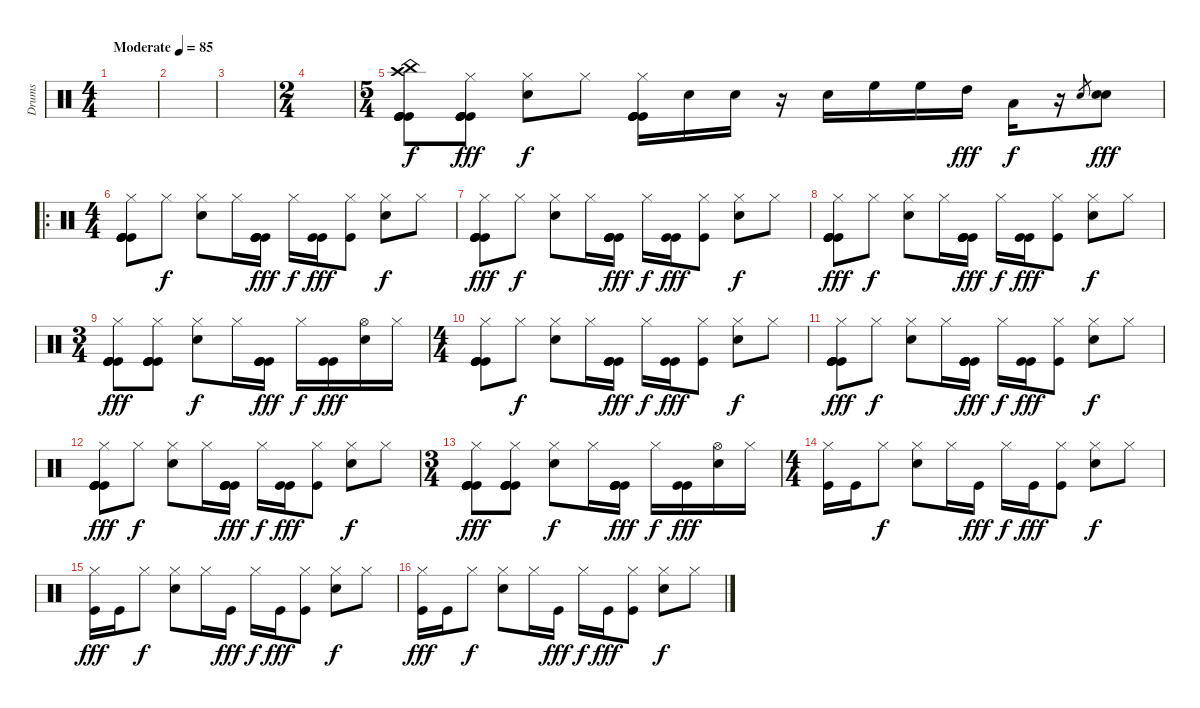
\track ("Drums" "Drums") {instrument percussion}
\staff {score}
\articulation defaults
\ts (4 4)
\tempo (85 "Moderate")
\clef neutral
\ks c
|
|
|
\ts (2 4)
|
\ts (5 4)
("Kick (hit)" "China (hit)" "Kick (hit)" "Kick (hit)" "Kick (hit)" "Crash high (hit)").8 ("Hi-Hat (closed)" "Kick (hit)" "Kick (hit)" "Kick (hit)" "Kick (hit)").8{dy fff} ("Snare (hit) 2" "Hi-Hat (closed)").8{dy f} "Hi-Hat (closed)".8 ("Hi-Hat (closed)" "Kick (hit)" "Kick (hit)" "Kick (hit)" "Kick (hit)").16 "Snare (hit) 2".16 "Snare (hit) 2".16 r.16 "Snare (hit) 2".16 "High Floor Tom (hit)".16 "High Floor Tom (hit)".16 "High Tom (hit)".16{dy fff} "Low Tom (hit)".16{dy f} r.16 "Snare (hit) 2".8{gr} ("Snare (hit) 2" "Snare (hit) 2").8{dy fff} |
\ro
\ts (4 4)
("Hi-Hat (closed)" "Kick (hit)" "Kick (hit)" "Kick (hit)" "Kick (hit)").8 "Hi-Hat (closed)".8{dy f} ("Hi-Hat (closed)" "Snare (hit) 2").8 "Hi-Hat (closed)".16 ("Kick (hit)" "Kick (hit)" "Kick (hit)" "Kick (hit)").16{dy fff} "Hi-Hat (closed)".16{dy f} ("Kick (hit)" "Kick (hit)").16{dy fff} ("Kick (hit)" "Hi-Hat (closed)").8 ("Snare (hit) 2" "Hi-Hat (closed)").8{dy f} "Hi-Hat (closed)".8 |
("Hi-Hat (closed)" "Kick (hit)" "Kick (hit)" "Kick (hit)" "Kick (hit)").8{dy fff} "Hi-Hat (closed)".8{dy f} ("Hi-Hat (closed)" "Snare (hit) 2").8 "Hi-Hat (closed)".16 ("Kick (hit)" "Kick (hit)" "Kick (hit)" "Kick (hit)").16{dy fff} "Hi-Hat (closed)".16{dy f} ("Kick (hit)" "Kick (hit)").16{dy fff} ("Kick (hit)" "Hi-Hat (closed)").8 ("Snare (hit) 2" "Hi-Hat (closed)").8{dy f} "Hi-Hat (closed)".8 |
("Hi-Hat (closed)" "Kick (hit)" "Kick (hit)" "Kick (hit)" "Kick (hit)").8{dy fff} "Hi-Hat (closed)".8{dy f} ("Hi-Hat (closed)" "Snare (hit) 2").8 "Hi-Hat (closed)".16 ("Kick (hit)" "Kick (hit)" "Kick (hit)" "Kick (hit)").16{dy fff} "Hi-Hat (closed)".16{dy f} ("Kick (hit)" "Kick (hit)").16{dy fff} ("Kick (hit)" "Hi-Hat (closed)").8 ("Snare (hit) 2" "Hi-Hat (closed)").8{dy f} "Hi-Hat (closed)".8 |
\ts (3 4)
("Hi-Hat (closed)" "Kick (hit)" "Kick (hit)" "Kick (hit)" "Kick (hit)").8{dy fff} ("Hi-Hat (closed)" "Kick (hit)" "Kick (hit)" "Kick (hit)" "Kick (hit)").8 ("Hi-Hat (closed)" "Snare (hit) 2").8{dy f} "Hi-Hat (closed)".16 ("Kick (hit)" "Kick (hit)" "Kick (hit)" "Kick (hit)").16{dy fff} "Hi-Hat (closed)".16{dy f} ("Kick (hit)" "Kick (hit)").16{dy fff} ("Snare (hit) 2" "Hi-Hat (open)").16 "Hi-Hat (closed)".16 |
\ts (4 4)
("Hi-Hat (closed)" "Kick (hit)" "Kick (hit)" "Kick (hit)" "Kick (hit)").8 "Hi-Hat (closed)".8{dy f} ("Hi-Hat (closed)" "Snare (hit) 2").8 "Hi-Hat (closed)".16 ("Kick (hit)" "Kick (hit)" "Kick (hit)" "Kick (hit)").16{dy fff} "Hi-Hat (closed)".16{dy f} ("Kick (hit)" "Kick (hit)").16{dy fff} ("Kick (hit)" "Hi-Hat (closed)").8 ("Snare (hit) 2" "Hi-Hat (closed)").8{dy f} "Hi-Hat (closed)".8 |
("Hi-Hat (closed)" "Kick (hit)" "Kick (hit)" "Kick (hit)" "Kick (hit)").8{dy fff} "Hi-Hat (closed)".8{dy f} ("Hi-Hat (closed)" "Snare (hit) 2").8 "Hi-Hat (closed)".16 ("Kick (hit)" "Kick (hit)" "Kick (hit)" "Kick (hit)").16{dy fff} "Hi-Hat (closed)".16{dy f} ("Kick (hit)" "Kick (hit)").16{dy fff} ("Kick (hit)" "Hi-Hat (closed)").8 ("Snare (hit) 2" "Hi-Hat (closed)").8{dy f} "Hi-Hat (closed)".8 |
("Hi-Hat (closed)" "Kick (hit)" "Kick (hit)" "Kick (hit)" "Kick (hit)").8{dy fff} "Hi-Hat (closed)".8{dy f} ("Hi-Hat (closed)" "Snare (hit) 2").8 "Hi-Hat (closed)".16 ("Kick (hit)" "Kick (hit)" "Kick (hit)" "Kick (hit)").16{dy fff} "Hi-Hat (closed)".16{dy f} ("Kick (hit)" "Kick (hit)").16{dy fff} ("Kick (hit)" "Hi-Hat (closed)").8 ("Snare (hit) 2" "Hi-Hat (closed)").8{dy f} "Hi-Hat (closed)".8 |
\ts (3 4)
("Hi-Hat (closed)" "Kick (hit)" "Kick (hit)" "Kick (hit)" "Kick (hit)").8{dy fff} ("Hi-Hat (closed)" "Kick (hit)" "Kick (hit)" "Kick (hit)" "Kick (hit)").8 ("Hi-Hat (closed)" "Snare (hit) 2").8{dy f} "Hi-Hat (closed)".16 ("Kick (hit)" "Kick (hit)" "Kick (hit)" "Kick (hit)").16{dy fff} "Hi-Hat (closed)".16{dy f} ("Kick (hit)" "Kick (hit)").16{dy fff} ("Snare (hit) 2" "Hi-Hat (open)").16 "Hi-Hat (closed)".16 |
\ts (4 4)
("Kick (hit)" "Hi-Hat (closed)").16 "Kick (hit)".16 "Hi-Hat (closed)".8{dy f} ("Hi-Hat (closed)" "Snare (hit) 2").8 "Hi-Hat (closed)".16 "Kick (hit)".16{dy fff} "Hi-Hat (closed)".16{dy f} "Kick (hit)".16{dy fff} ("Hi-Hat (closed)" "Kick (hit)").8 ("Snare (hit) 2" "Hi-Hat (closed)").8{dy f} "Hi-Hat (closed)".8 |
("Kick (hit)" "Hi-Hat (closed)").16{dy fff} "Kick (hit)".16 "Hi-Hat (closed)".8{dy f} ("Hi-Hat (closed)" "Snare (hit) 2").8 "Hi-Hat (closed)".16 "Kick (hit)".16{dy fff} "Hi-Hat (closed)".16{dy f} "Kick (hit)".16{dy fff} ("Hi-Hat (closed)" "Kick (hit)").8 ("Snare (hit) 2" "Hi-Hat (closed)").8{dy f} "Hi-Hat (closed)".8 |
("Kick (hit)" "Hi-Hat (closed)").16{dy fff} "Kick (hit)".16 "Hi-Hat (closed)".8{dy f} ("Hi-Hat (closed)" "Snare (hit) 2").8 "Hi-Hat (closed)".16 "Kick (hit)".16{dy fff} "Hi-Hat (closed)".16{dy f} "Kick (hit)".16{dy fff} ("Hi-Hat (closed)" "Kick (hit)").8 ("Snare (hit) 2" "Hi-Hat (closed)").8{dy f} "Hi-Hat (closed)".8
